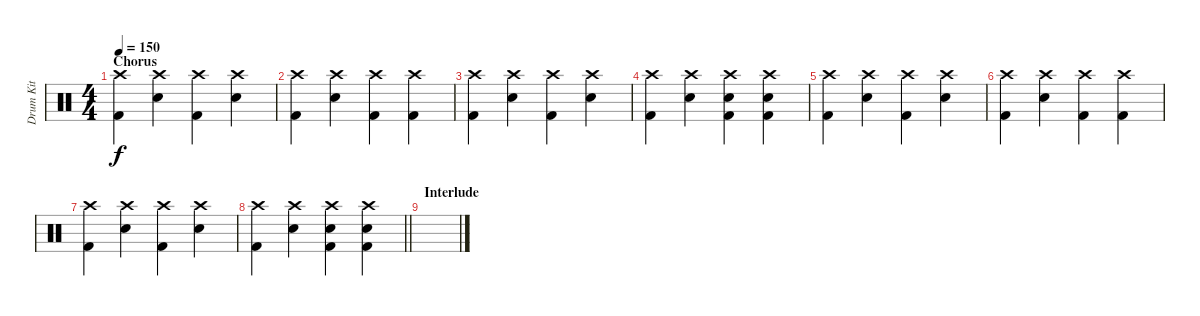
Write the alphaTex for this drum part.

\track ("Drum Kit" "Drum Kit") {instrument percussion}
\staff {score}
\articulation defaults
\ts (4 4)
\section ("" "Chorus")
\tempo 150
\clef neutral
\ks c
("Crash high (hit)" "Kick (hit) 2").4{dy f} ("Crash high (hit)" "Snare (hit) 2").4 ("Crash high (hit)" "Kick (hit) 2").4 ("Crash high (hit)" "Snare (hit) 2").4 |
("Crash high (hit)" "Kick (hit) 2").4 ("Crash high (hit)" "Snare (hit) 2").4 ("Crash high (hit)" "Kick (hit) 2").4 ("Crash high (hit)" "Kick (hit) 2").4 |
("Crash high (hit)" "Kick (hit) 2").4 ("Crash high (hit)" "Snare (hit) 2").4 ("Crash high (hit)" "Kick (hit) 2").4 ("Crash high (hit)" "Snare (hit) 2").4 |
("Crash high (hit)" "Kick (hit) 2").4 ("Crash high (hit)" "Snare (hit) 2").4 ("Crash high (hit)" "Snare (hit) 2" "Kick (hit) 2").4 ("Crash high (hit)" "Snare (hit) 2" "Kick (hit) 2").4 |
("Crash high (hit)" "Kick (hit) 2").4 ("Crash high (hit)" "Snare (hit) 2").4 ("Crash high (hit)" "Kick (hit) 2").4 ("Crash high (hit)" "Snare (hit) 2").4 |
("Crash high (hit)" "Kick (hit) 2").4 ("Crash high (hit)" "Snare (hit) 2").4 ("Crash high (hit)" "Kick (hit) 2").4 ("Crash high (hit)" "Kick (hit) 2").4 |
("Crash high (hit)" "Kick (hit) 2").4 ("Crash high (hit)" "Snare (hit) 2").4 ("Crash high (hit)" "Kick (hit) 2").4 ("Crash high (hit)" "Snare (hit) 2").4 |
\barLineRight lightlight
("Crash high (hit)" "Kick (hit) 2").4 ("Crash high (hit)" "Snare (hit) 2").4 ("Crash high (hit)" "Snare (hit) 2" "Kick (hit) 2").4 ("Crash high (hit)" "Snare (hit) 2" "Kick (hit) 2").4 |
\section ("" "Interlude")
